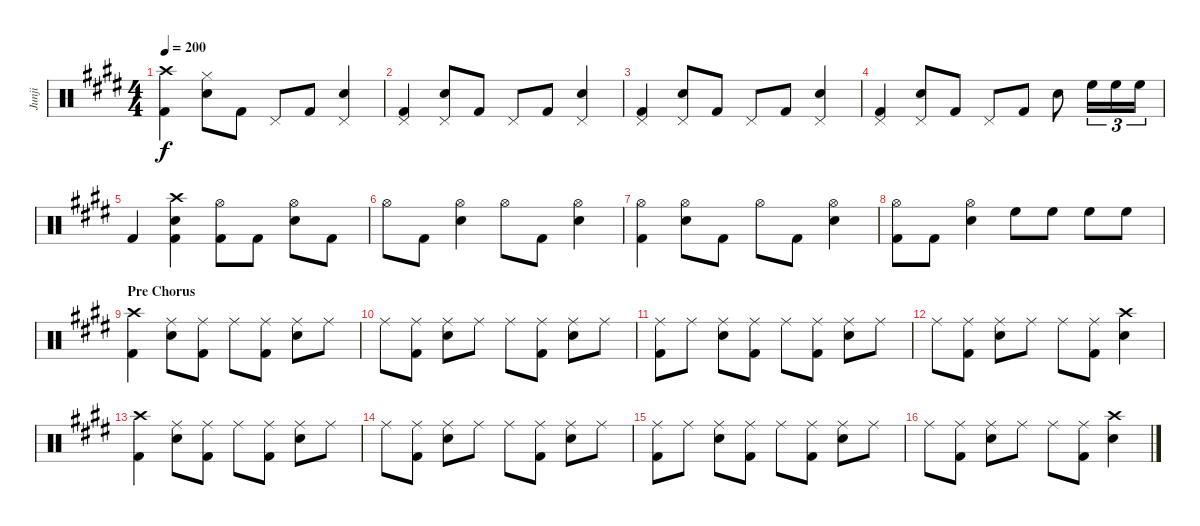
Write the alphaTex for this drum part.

\track ("Junji" "Junji") {instrument percussion}
\staff {score}
\articulation defaults
\ts (4 4)
\tempo 200
\clef neutral
\ks e
("Crash high (hit)" "Kick (hit) 2").4{dy f} ("Hi-Hat (closed)" "Snare (hit) 2").8 "Kick (hit) 2".8 "Pedal Hi-Hat (hit)".8 "Kick (hit) 2".8 ("Pedal Hi-Hat (hit)" "Snare (hit) 2").4 |
("Pedal Hi-Hat (hit)" "Kick (hit) 2").4 ("Pedal Hi-Hat (hit)" "Snare (hit) 2").8 "Kick (hit) 2".8 "Pedal Hi-Hat (hit)".8 "Kick (hit) 2".8 ("Pedal Hi-Hat (hit)" "Snare (hit) 2").4 |
("Pedal Hi-Hat (hit)" "Kick (hit) 2").4 ("Pedal Hi-Hat (hit)" "Snare (hit) 2").8 "Kick (hit) 2".8 "Pedal Hi-Hat (hit)".8 "Kick (hit) 2".8 ("Pedal Hi-Hat (hit)" "Snare (hit) 2").4 |
("Pedal Hi-Hat (hit)" "Kick (hit) 2").4 ("Pedal Hi-Hat (hit)" "Snare (hit) 2").8 "Kick (hit) 2".8 "Pedal Hi-Hat (hit)".8 "Kick (hit) 2".8 "Snare (hit) 2".8 "High Floor Tom (hit)".16{tu (3 2)} "High Floor Tom (hit)".16{tu (3 2)} "High Floor Tom (hit)".16{tu (3 2)} |
"Kick (hit) 2".4 ("Crash high (hit)" "Snare (hit) 2" "Kick (hit) 2").4 ("Hi-Hat (open)" "Kick (hit) 2").8 "Kick (hit) 2".8 ("Hi-Hat (open)" "Snare (hit) 2").8 "Kick (hit) 2".8 |
"Hi-Hat (open)".8 "Kick (hit) 2".8 ("Hi-Hat (open)" "Snare (hit) 2").4 "Hi-Hat (open)".8 "Kick (hit) 2".8 ("Hi-Hat (open)" "Snare (hit) 2").4 |
("Hi-Hat (open)" "Kick (hit) 2").4 ("Hi-Hat (open)" "Snare (hit) 2").8 "Kick (hit) 2".8 "Hi-Hat (open)".8 "Kick (hit) 2".8 ("Hi-Hat (open)" "Snare (hit) 2").4 |
("Hi-Hat (open)" "Kick (hit) 2").8 "Kick (hit) 2".8 ("Hi-Hat (open)" "Snare (hit) 2").4 "High Floor Tom (hit)".8 "High Floor Tom (hit)".8 "High Floor Tom (hit)".8 "High Floor Tom (hit)".8 |
\section ("" "Pre Chorus")
("Crash high (hit)" "Kick (hit) 2").4 ("Ride (middle)" "Snare (hit) 2").8 ("Ride (middle)" "Kick (hit) 2").8 "Ride (middle)".8 ("Ride (middle)" "Kick (hit) 2").8 ("Ride (middle)" "Snare (hit) 2").8 "Ride (middle)".8 |
"Ride (middle)".8 ("Ride (middle)" "Kick (hit) 2").8 ("Ride (middle)" "Snare (hit) 2").8 "Ride (middle)".8 "Ride (middle)".8 ("Ride (middle)" "Kick (hit) 2").8 ("Ride (middle)" "Snare (hit) 2").8 "Ride (middle)".8 |
("Ride (middle)" "Kick (hit) 2").8 "Ride (middle)".8 ("Ride (middle)" "Snare (hit) 2").8 ("Ride (middle)" "Kick (hit) 2").8 "Ride (middle)".8 ("Ride (middle)" "Kick (hit) 2").8 ("Ride (middle)" "Snare (hit) 2").8 "Ride (middle)".8 |
"Ride (middle)".8 ("Ride (middle)" "Kick (hit) 2").8 ("Ride (middle)" "Snare (hit) 2").8 "Ride (middle)".8 "Ride (middle)".8 ("Ride (middle)" "Kick (hit) 2").8 ("Crash high (hit)" "Snare (hit) 2").4 |
("Crash high (hit)" "Kick (hit) 2").4 ("Ride (middle)" "Snare (hit) 2").8 ("Ride (middle)" "Kick (hit) 2").8 "Ride (middle)".8 ("Ride (middle)" "Kick (hit) 2").8 ("Ride (middle)" "Snare (hit) 2").8 "Ride (middle)".8 |
"Ride (middle)".8 ("Ride (middle)" "Kick (hit) 2").8 ("Ride (middle)" "Snare (hit) 2").8 "Ride (middle)".8 "Ride (middle)".8 ("Ride (middle)" "Kick (hit) 2").8 ("Ride (middle)" "Snare (hit) 2").8 "Ride (middle)".8 |
("Ride (middle)" "Kick (hit) 2").8 "Ride (middle)".8 ("Ride (middle)" "Snare (hit) 2").8 ("Ride (middle)" "Kick (hit) 2").8 "Ride (middle)".8 ("Ride (middle)" "Kick (hit) 2").8 ("Ride (middle)" "Snare (hit) 2").8 "Ride (middle)".8 |
"Ride (middle)".8 ("Ride (middle)" "Kick (hit) 2").8 ("Ride (middle)" "Snare (hit) 2").8 "Ride (middle)".8 "Ride (middle)".8 ("Ride (middle)" "Kick (hit) 2").8 ("Crash high (hit)" "Snare (hit) 2").4
